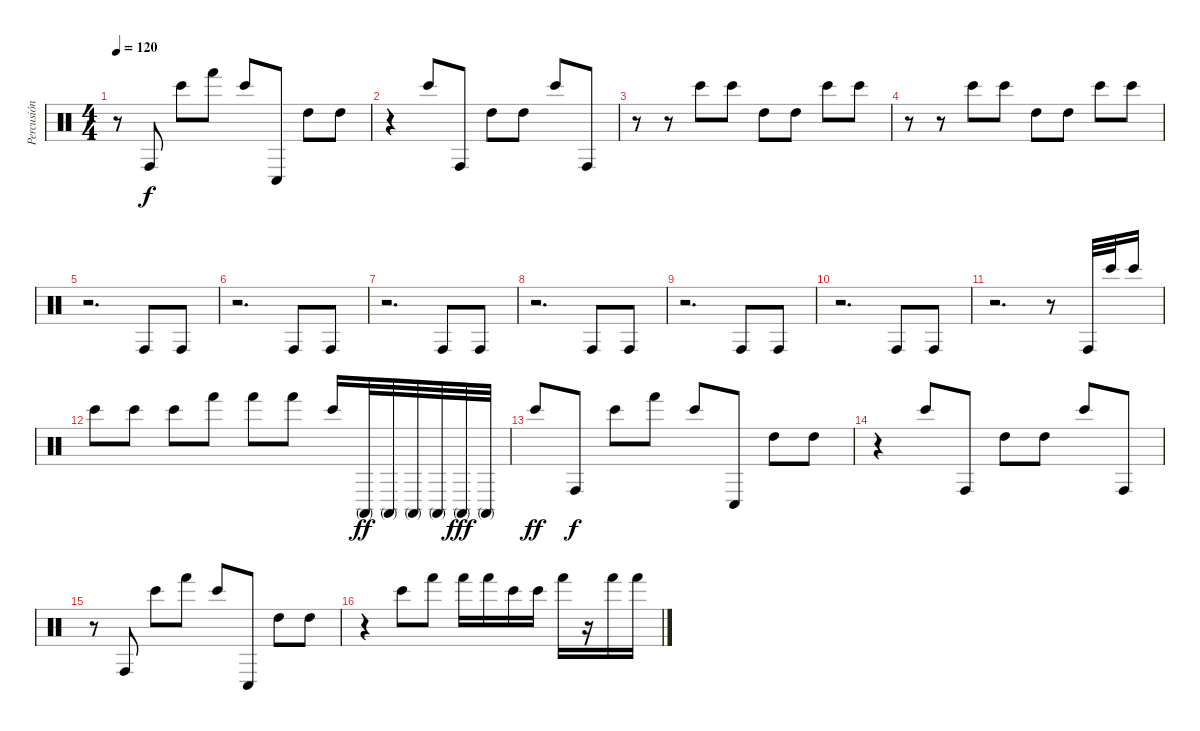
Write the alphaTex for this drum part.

\track ("Percusión" "Percusión") {instrument percussion}
\staff {score}
\articulation defaults
\ts (4 4)
\tempo 120
\clef neutral
\ks c
r.8{dy f} "Conga high (hit)".8 "Bongo High (hit)".8 "Hand (hit)".8 "Bongo High (hit)".8 "Conga low (hit)".8 "High Tom (hit)".8 "High Tom (hit)".8 |
r.4 "Bongo High (hit)".8 "Conga high (hit)".8 "High Tom (hit)".8 "High Tom (hit)".8 "Bongo High (hit)".8 "Conga high (hit)".8 |
r.8 r.8 "Bongo High (hit)".8 "Bongo High (hit)".8 "High Tom (hit)".8 "High Tom (hit)".8 "Bongo High (hit)".8 "Bongo High (hit)".8 |
r.8 r.8 "Bongo High (hit)".8 "Bongo High (hit)".8 "High Tom (hit)".8 "High Tom (hit)".8 "Bongo High (hit)".8 "Bongo High (hit)".8 |
r.2{d} "Conga high (hit)".8 "Conga high (hit)".8 |
r.2{d} "Conga high (hit)".8 "Conga high (hit)".8 |
r.2{d} "Conga high (hit)".8 "Conga high (hit)".8 |
r.2{d} "Conga high (hit)".8 "Conga high (hit)".8 |
r.2{d} "Conga high (hit)".8 "Conga high (hit)".8 |
r.2{d} "Conga high (hit)".8 "Conga high (hit)".8 |
r.2{d} r.8 "Conga high (hit)".32 "Bongo High (hit)".32 "Bongo High (hit)".16 |
"Bongo High (hit)".8 "Bongo High (hit)".8 "Bongo High (hit)".8 "Hand (hit)".8 "Hand (hit)".8 "Hand (hit)".8 "Bongo High (hit)".16 "Conga high (mute)".32{dy ff} "Conga high (mute)".32 "Conga high (mute)".32 "Conga high (mute)".32 "Conga high (mute)".32{dy fff} "Conga high (mute)".32 |
"Bongo High (hit)".8{dy ff} "Conga high (hit)".8{dy f} "Bongo High (hit)".8 "Hand (hit)".8 "Bongo High (hit)".8 "Conga low (hit)".8 "High Tom (hit)".8 "High Tom (hit)".8 |
r.4 "Bongo High (hit)".8 "Conga high (hit)".8 "High Tom (hit)".8 "High Tom (hit)".8 "Bongo High (hit)".8 "Conga high (hit)".8 |
r.8 "Conga high (hit)".8 "Bongo High (hit)".8 "Hand (hit)".8 "Bongo High (hit)".8 "Conga low (hit)".8 "High Tom (hit)".8 "High Tom (hit)".8 |
r.4 "Bongo High (hit)".8 "Hand (hit)".8 "Hand (hit)".16 "Hand (hit)".16 "Bongo High (hit)".16 "Bongo High (hit)".16 "Hand (hit)".16 r.16 "Hand (hit)".16 "Hand (hit)".16
